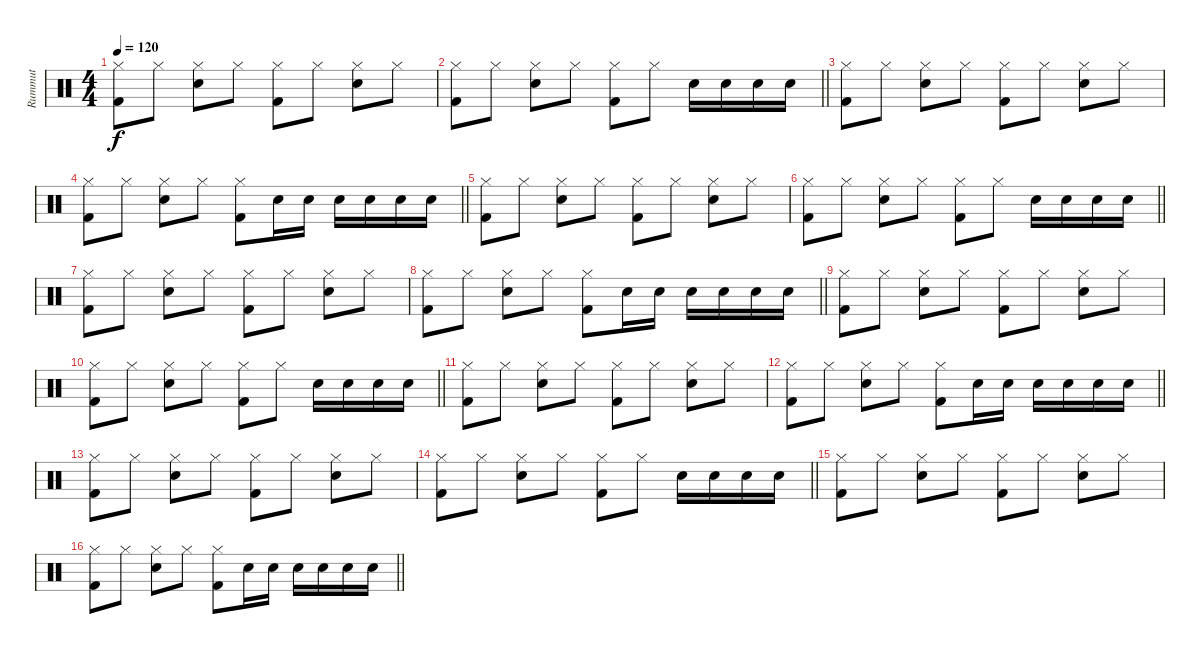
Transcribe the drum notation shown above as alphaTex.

\track ("Rummut" "Rummut") {instrument percussion}
\staff {score}
\articulation defaults
\ts (4 4)
\tempo 120
\clef neutral
\ks c
("Hi-Hat (closed)" "Kick (hit) 2").8{dy f} "Hi-Hat (closed)".8 ("Hi-Hat (closed)" "Electric Snare (hit)").8 "Hi-Hat (closed)".8 ("Hi-Hat (closed)" "Kick (hit) 2").8 "Hi-Hat (closed)".8 ("Hi-Hat (closed)" "Electric Snare (hit)").8 "Hi-Hat (closed)".8 |
\barLineRight lightlight
("Hi-Hat (closed)" "Kick (hit) 2").8 "Hi-Hat (closed)".8 ("Hi-Hat (closed)" "Electric Snare (hit)").8 "Hi-Hat (closed)".8 ("Hi-Hat (closed)" "Kick (hit) 2").8 "Hi-Hat (closed)".8 "Electric Snare (hit)".16 "Electric Snare (hit)".16 "Electric Snare (hit)".16 "Electric Snare (hit)".16 |
("Hi-Hat (closed)" "Kick (hit) 2").8 "Hi-Hat (closed)".8 ("Hi-Hat (closed)" "Electric Snare (hit)").8 "Hi-Hat (closed)".8 ("Hi-Hat (closed)" "Kick (hit) 2").8 "Hi-Hat (closed)".8 ("Hi-Hat (closed)" "Electric Snare (hit)").8 "Hi-Hat (closed)".8 |
\barLineRight lightlight
("Hi-Hat (closed)" "Kick (hit) 2").8 "Hi-Hat (closed)".8 ("Hi-Hat (closed)" "Electric Snare (hit)").8 "Hi-Hat (closed)".8 ("Hi-Hat (closed)" "Kick (hit) 2").8 "Electric Snare (hit)".16 "Electric Snare (hit)".16 "Electric Snare (hit)".16 "Electric Snare (hit)".16 "Electric Snare (hit)".16 "Electric Snare (hit)".16 |
("Hi-Hat (closed)" "Kick (hit) 2").8 "Hi-Hat (closed)".8 ("Hi-Hat (closed)" "Electric Snare (hit)").8 "Hi-Hat (closed)".8 ("Hi-Hat (closed)" "Kick (hit) 2").8 "Hi-Hat (closed)".8 ("Hi-Hat (closed)" "Electric Snare (hit)").8 "Hi-Hat (closed)".8 |
\barLineRight lightlight
("Hi-Hat (closed)" "Kick (hit) 2").8 "Hi-Hat (closed)".8 ("Hi-Hat (closed)" "Electric Snare (hit)").8 "Hi-Hat (closed)".8 ("Hi-Hat (closed)" "Kick (hit) 2").8 "Hi-Hat (closed)".8 "Electric Snare (hit)".16 "Electric Snare (hit)".16 "Electric Snare (hit)".16 "Electric Snare (hit)".16 |
("Hi-Hat (closed)" "Kick (hit) 2").8 "Hi-Hat (closed)".8 ("Hi-Hat (closed)" "Electric Snare (hit)").8 "Hi-Hat (closed)".8 ("Hi-Hat (closed)" "Kick (hit) 2").8 "Hi-Hat (closed)".8 ("Hi-Hat (closed)" "Electric Snare (hit)").8 "Hi-Hat (closed)".8 |
\barLineRight lightlight
("Hi-Hat (closed)" "Kick (hit) 2").8 "Hi-Hat (closed)".8 ("Hi-Hat (closed)" "Electric Snare (hit)").8 "Hi-Hat (closed)".8 ("Hi-Hat (closed)" "Kick (hit) 2").8 "Electric Snare (hit)".16 "Electric Snare (hit)".16 "Electric Snare (hit)".16 "Electric Snare (hit)".16 "Electric Snare (hit)".16 "Electric Snare (hit)".16 |
("Hi-Hat (closed)" "Kick (hit) 2").8 "Hi-Hat (closed)".8 ("Hi-Hat (closed)" "Electric Snare (hit)").8 "Hi-Hat (closed)".8 ("Hi-Hat (closed)" "Kick (hit) 2").8 "Hi-Hat (closed)".8 ("Hi-Hat (closed)" "Electric Snare (hit)").8 "Hi-Hat (closed)".8 |
\barLineRight lightlight
("Hi-Hat (closed)" "Kick (hit) 2").8 "Hi-Hat (closed)".8 ("Hi-Hat (closed)" "Electric Snare (hit)").8 "Hi-Hat (closed)".8 ("Hi-Hat (closed)" "Kick (hit) 2").8 "Hi-Hat (closed)".8 "Electric Snare (hit)".16 "Electric Snare (hit)".16 "Electric Snare (hit)".16 "Electric Snare (hit)".16 |
("Hi-Hat (closed)" "Kick (hit) 2").8{volume 12} "Hi-Hat (closed)".8 ("Hi-Hat (closed)" "Electric Snare (hit)").8 "Hi-Hat (closed)".8 ("Hi-Hat (closed)" "Kick (hit) 2").8 "Hi-Hat (closed)".8 ("Hi-Hat (closed)" "Electric Snare (hit)").8 "Hi-Hat (closed)".8 |
\barLineRight lightlight
("Hi-Hat (closed)" "Kick (hit) 2").8 "Hi-Hat (closed)".8 ("Hi-Hat (closed)" "Electric Snare (hit)").8 "Hi-Hat (closed)".8 ("Hi-Hat (closed)" "Kick (hit) 2").8 "Electric Snare (hit)".16 "Electric Snare (hit)".16 "Electric Snare (hit)".16 "Electric Snare (hit)".16 "Electric Snare (hit)".16 "Electric Snare (hit)".16 |
("Hi-Hat (closed)" "Kick (hit) 2").8{volume 11} "Hi-Hat (closed)".8 ("Hi-Hat (closed)" "Electric Snare (hit)").8 "Hi-Hat (closed)".8 ("Hi-Hat (closed)" "Kick (hit) 2").8 "Hi-Hat (closed)".8 ("Hi-Hat (closed)" "Electric Snare (hit)").8 "Hi-Hat (closed)".8 |
\barLineRight lightlight
("Hi-Hat (closed)" "Kick (hit) 2").8 "Hi-Hat (closed)".8 ("Hi-Hat (closed)" "Electric Snare (hit)").8 "Hi-Hat (closed)".8 ("Hi-Hat (closed)" "Kick (hit) 2").8 "Hi-Hat (closed)".8 "Electric Snare (hit)".16 "Electric Snare (hit)".16 "Electric Snare (hit)".16 "Electric Snare (hit)".16 |
("Hi-Hat (closed)" "Kick (hit) 2").8{volume 10} "Hi-Hat (closed)".8 ("Hi-Hat (closed)" "Electric Snare (hit)").8 "Hi-Hat (closed)".8 ("Hi-Hat (closed)" "Kick (hit) 2").8 "Hi-Hat (closed)".8 ("Hi-Hat (closed)" "Electric Snare (hit)").8 "Hi-Hat (closed)".8 |
\barLineRight lightlight
("Hi-Hat (closed)" "Kick (hit) 2").8 "Hi-Hat (closed)".8 ("Hi-Hat (closed)" "Electric Snare (hit)").8 "Hi-Hat (closed)".8 ("Hi-Hat (closed)" "Kick (hit) 2").8 "Electric Snare (hit)".16 "Electric Snare (hit)".16 "Electric Snare (hit)".16 "Electric Snare (hit)".16 "Electric Snare (hit)".16 "Electric Snare (hit)".16
